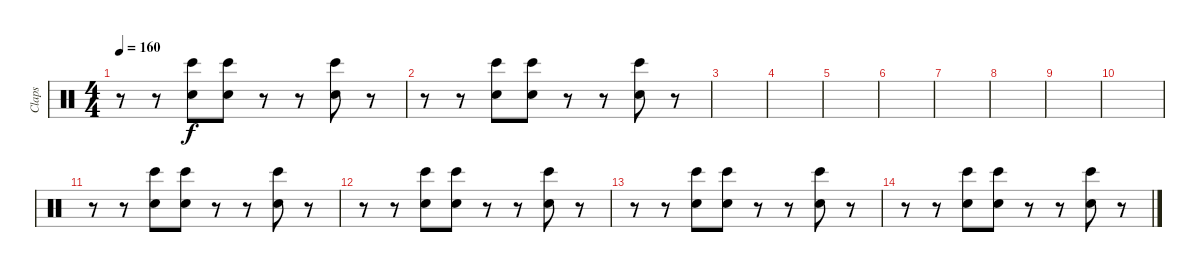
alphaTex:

\track ("Claps" "Claps") {instrument percussion}
\staff {score}
\articulation defaults
\ts (4 4)
\tempo 160
\clef neutral
\ks c
r.8{dy f} r.8 ("Hand Clap (hit)" "Bongo High (hit)").8 ("Hand Clap (hit)" "Bongo High (hit)").8 r.8 r.8 ("Hand Clap (hit)" "Bongo High (hit)").8 r.8 |
r.8 r.8 ("Hand Clap (hit)" "Bongo High (hit)").8 ("Hand Clap (hit)" "Bongo High (hit)").8 r.8 r.8 ("Hand Clap (hit)" "Bongo High (hit)").8 r.8 |
|
|
|
|
|
|
|
|
r.8 r.8 ("Hand Clap (hit)" "Bongo High (hit)").8 ("Hand Clap (hit)" "Bongo High (hit)").8 r.8 r.8 ("Hand Clap (hit)" "Bongo High (hit)").8 r.8 |
r.8 r.8 ("Hand Clap (hit)" "Bongo High (hit)").8 ("Hand Clap (hit)" "Bongo High (hit)").8 r.8 r.8 ("Hand Clap (hit)" "Bongo High (hit)").8 r.8 |
r.8 r.8 ("Hand Clap (hit)" "Bongo High (hit)").8 ("Hand Clap (hit)" "Bongo High (hit)").8 r.8 r.8 ("Hand Clap (hit)" "Bongo High (hit)").8 r.8 |
r.8 r.8 ("Hand Clap (hit)" "Bongo High (hit)").8 ("Hand Clap (hit)" "Bongo High (hit)").8 r.8 r.8 ("Hand Clap (hit)" "Bongo High (hit)").8 r.8
